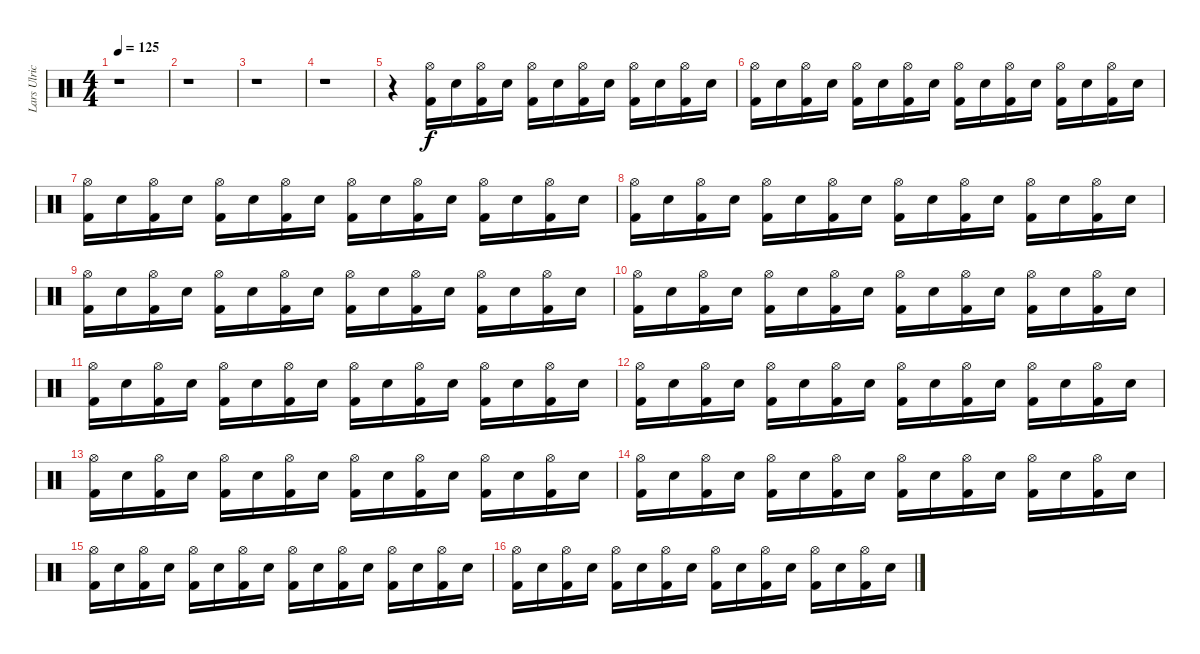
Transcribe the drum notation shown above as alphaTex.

\track ("Lars Ulrich" "Lars Ulric") {instrument percussion}
\staff {score}
\articulation defaults
\ts (4 4)
\tempo 125
\clef neutral
\ks c
r.1{dy fff} |
r.1 |
r.1 |
r.1 |
r.4 ("Hi-Hat (open)" "Kick (hit) 2").16{dy f} "Electric Snare (hit)".16 ("Hi-Hat (open)" "Kick (hit) 2").16 "Electric Snare (hit)".16 ("Hi-Hat (open)" "Kick (hit) 2").16 "Electric Snare (hit)".16 ("Hi-Hat (open)" "Kick (hit) 2").16 "Electric Snare (hit)".16 ("Hi-Hat (open)" "Kick (hit) 2").16 "Electric Snare (hit)".16 ("Hi-Hat (open)" "Kick (hit) 2").16 "Electric Snare (hit)".16 |
("Hi-Hat (open)" "Kick (hit) 2").16 "Electric Snare (hit)".16 ("Hi-Hat (open)" "Kick (hit) 2").16 "Electric Snare (hit)".16 ("Hi-Hat (open)" "Kick (hit) 2").16 "Electric Snare (hit)".16 ("Hi-Hat (open)" "Kick (hit) 2").16 "Electric Snare (hit)".16 ("Hi-Hat (open)" "Kick (hit) 2").16 "Electric Snare (hit)".16 ("Hi-Hat (open)" "Kick (hit) 2").16 "Electric Snare (hit)".16 ("Hi-Hat (open)" "Kick (hit) 2").16 "Electric Snare (hit)".16 ("Hi-Hat (open)" "Kick (hit) 2").16 "Electric Snare (hit)".16 |
("Hi-Hat (open)" "Kick (hit) 2").16 "Electric Snare (hit)".16 ("Hi-Hat (open)" "Kick (hit) 2").16 "Electric Snare (hit)".16 ("Hi-Hat (open)" "Kick (hit) 2").16 "Electric Snare (hit)".16 ("Hi-Hat (open)" "Kick (hit) 2").16 "Electric Snare (hit)".16 ("Hi-Hat (open)" "Kick (hit) 2").16 "Electric Snare (hit)".16 ("Hi-Hat (open)" "Kick (hit) 2").16 "Electric Snare (hit)".16 ("Hi-Hat (open)" "Kick (hit) 2").16 "Electric Snare (hit)".16 ("Hi-Hat (open)" "Kick (hit) 2").16 "Electric Snare (hit)".16 |
("Hi-Hat (open)" "Kick (hit) 2").16 "Electric Snare (hit)".16 ("Hi-Hat (open)" "Kick (hit) 2").16 "Electric Snare (hit)".16 ("Hi-Hat (open)" "Kick (hit) 2").16 "Electric Snare (hit)".16 ("Hi-Hat (open)" "Kick (hit) 2").16 "Electric Snare (hit)".16 ("Hi-Hat (open)" "Kick (hit) 2").16 "Electric Snare (hit)".16 ("Hi-Hat (open)" "Kick (hit) 2").16 "Electric Snare (hit)".16 ("Hi-Hat (open)" "Kick (hit) 2").16 "Electric Snare (hit)".16 ("Hi-Hat (open)" "Kick (hit) 2").16 "Electric Snare (hit)".16 |
("Hi-Hat (open)" "Kick (hit) 2").16 "Electric Snare (hit)".16 ("Hi-Hat (open)" "Kick (hit) 2").16 "Electric Snare (hit)".16 ("Hi-Hat (open)" "Kick (hit) 2").16 "Electric Snare (hit)".16 ("Hi-Hat (open)" "Kick (hit) 2").16 "Electric Snare (hit)".16 ("Hi-Hat (open)" "Kick (hit) 2").16 "Electric Snare (hit)".16 ("Hi-Hat (open)" "Kick (hit) 2").16 "Electric Snare (hit)".16 ("Hi-Hat (open)" "Kick (hit) 2").16 "Electric Snare (hit)".16 ("Hi-Hat (open)" "Kick (hit) 2").16 "Electric Snare (hit)".16 |
("Hi-Hat (open)" "Kick (hit) 2").16 "Electric Snare (hit)".16 ("Hi-Hat (open)" "Kick (hit) 2").16 "Electric Snare (hit)".16 ("Hi-Hat (open)" "Kick (hit) 2").16 "Electric Snare (hit)".16 ("Hi-Hat (open)" "Kick (hit) 2").16 "Electric Snare (hit)".16 ("Hi-Hat (open)" "Kick (hit) 2").16 "Electric Snare (hit)".16 ("Hi-Hat (open)" "Kick (hit) 2").16 "Electric Snare (hit)".16 ("Hi-Hat (open)" "Kick (hit) 2").16 "Electric Snare (hit)".16 ("Hi-Hat (open)" "Kick (hit) 2").16 "Electric Snare (hit)".16 |
("Hi-Hat (open)" "Kick (hit) 2").16 "Electric Snare (hit)".16 ("Hi-Hat (open)" "Kick (hit) 2").16 "Electric Snare (hit)".16 ("Hi-Hat (open)" "Kick (hit) 2").16 "Electric Snare (hit)".16 ("Hi-Hat (open)" "Kick (hit) 2").16 "Electric Snare (hit)".16 ("Hi-Hat (open)" "Kick (hit) 2").16 "Electric Snare (hit)".16 ("Hi-Hat (open)" "Kick (hit) 2").16 "Electric Snare (hit)".16 ("Hi-Hat (open)" "Kick (hit) 2").16 "Electric Snare (hit)".16 ("Hi-Hat (open)" "Kick (hit) 2").16 "Electric Snare (hit)".16 |
("Hi-Hat (open)" "Kick (hit) 2").16 "Electric Snare (hit)".16 ("Hi-Hat (open)" "Kick (hit) 2").16 "Electric Snare (hit)".16 ("Hi-Hat (open)" "Kick (hit) 2").16 "Electric Snare (hit)".16 ("Hi-Hat (open)" "Kick (hit) 2").16 "Electric Snare (hit)".16 ("Hi-Hat (open)" "Kick (hit) 2").16 "Electric Snare (hit)".16 ("Hi-Hat (open)" "Kick (hit) 2").16 "Electric Snare (hit)".16 ("Hi-Hat (open)" "Kick (hit) 2").16 "Electric Snare (hit)".16 ("Hi-Hat (open)" "Kick (hit) 2").16 "Electric Snare (hit)".16 |
("Hi-Hat (open)" "Kick (hit) 2").16 "Electric Snare (hit)".16 ("Hi-Hat (open)" "Kick (hit) 2").16 "Electric Snare (hit)".16 ("Hi-Hat (open)" "Kick (hit) 2").16 "Electric Snare (hit)".16 ("Hi-Hat (open)" "Kick (hit) 2").16 "Electric Snare (hit)".16 ("Hi-Hat (open)" "Kick (hit) 2").16 "Electric Snare (hit)".16 ("Hi-Hat (open)" "Kick (hit) 2").16 "Electric Snare (hit)".16 ("Hi-Hat (open)" "Kick (hit) 2").16 "Electric Snare (hit)".16 ("Hi-Hat (open)" "Kick (hit) 2").16 "Electric Snare (hit)".16 |
("Hi-Hat (open)" "Kick (hit) 2").16 "Electric Snare (hit)".16 ("Hi-Hat (open)" "Kick (hit) 2").16 "Electric Snare (hit)".16 ("Hi-Hat (open)" "Kick (hit) 2").16 "Electric Snare (hit)".16 ("Hi-Hat (open)" "Kick (hit) 2").16 "Electric Snare (hit)".16 ("Hi-Hat (open)" "Kick (hit) 2").16 "Electric Snare (hit)".16 ("Hi-Hat (open)" "Kick (hit) 2").16 "Electric Snare (hit)".16 ("Hi-Hat (open)" "Kick (hit) 2").16 "Electric Snare (hit)".16 ("Hi-Hat (open)" "Kick (hit) 2").16 "Electric Snare (hit)".16 |
("Hi-Hat (open)" "Kick (hit) 2").16 "Electric Snare (hit)".16 ("Hi-Hat (open)" "Kick (hit) 2").16 "Electric Snare (hit)".16 ("Hi-Hat (open)" "Kick (hit) 2").16 "Electric Snare (hit)".16 ("Hi-Hat (open)" "Kick (hit) 2").16 "Electric Snare (hit)".16 ("Hi-Hat (open)" "Kick (hit) 2").16 "Electric Snare (hit)".16 ("Hi-Hat (open)" "Kick (hit) 2").16 "Electric Snare (hit)".16 ("Hi-Hat (open)" "Kick (hit) 2").16 "Electric Snare (hit)".16 ("Hi-Hat (open)" "Kick (hit) 2").16 "Electric Snare (hit)".16 |
("Hi-Hat (open)" "Kick (hit) 2").16 "Electric Snare (hit)".16 ("Hi-Hat (open)" "Kick (hit) 2").16 "Electric Snare (hit)".16 ("Hi-Hat (open)" "Kick (hit) 2").16 "Electric Snare (hit)".16 ("Hi-Hat (open)" "Kick (hit) 2").16 "Electric Snare (hit)".16 ("Hi-Hat (open)" "Kick (hit) 2").16 "Electric Snare (hit)".16 ("Hi-Hat (open)" "Kick (hit) 2").16 "Electric Snare (hit)".16 ("Hi-Hat (open)" "Kick (hit) 2").16 "Electric Snare (hit)".16 ("Hi-Hat (open)" "Kick (hit) 2").16 "Electric Snare (hit)".16
